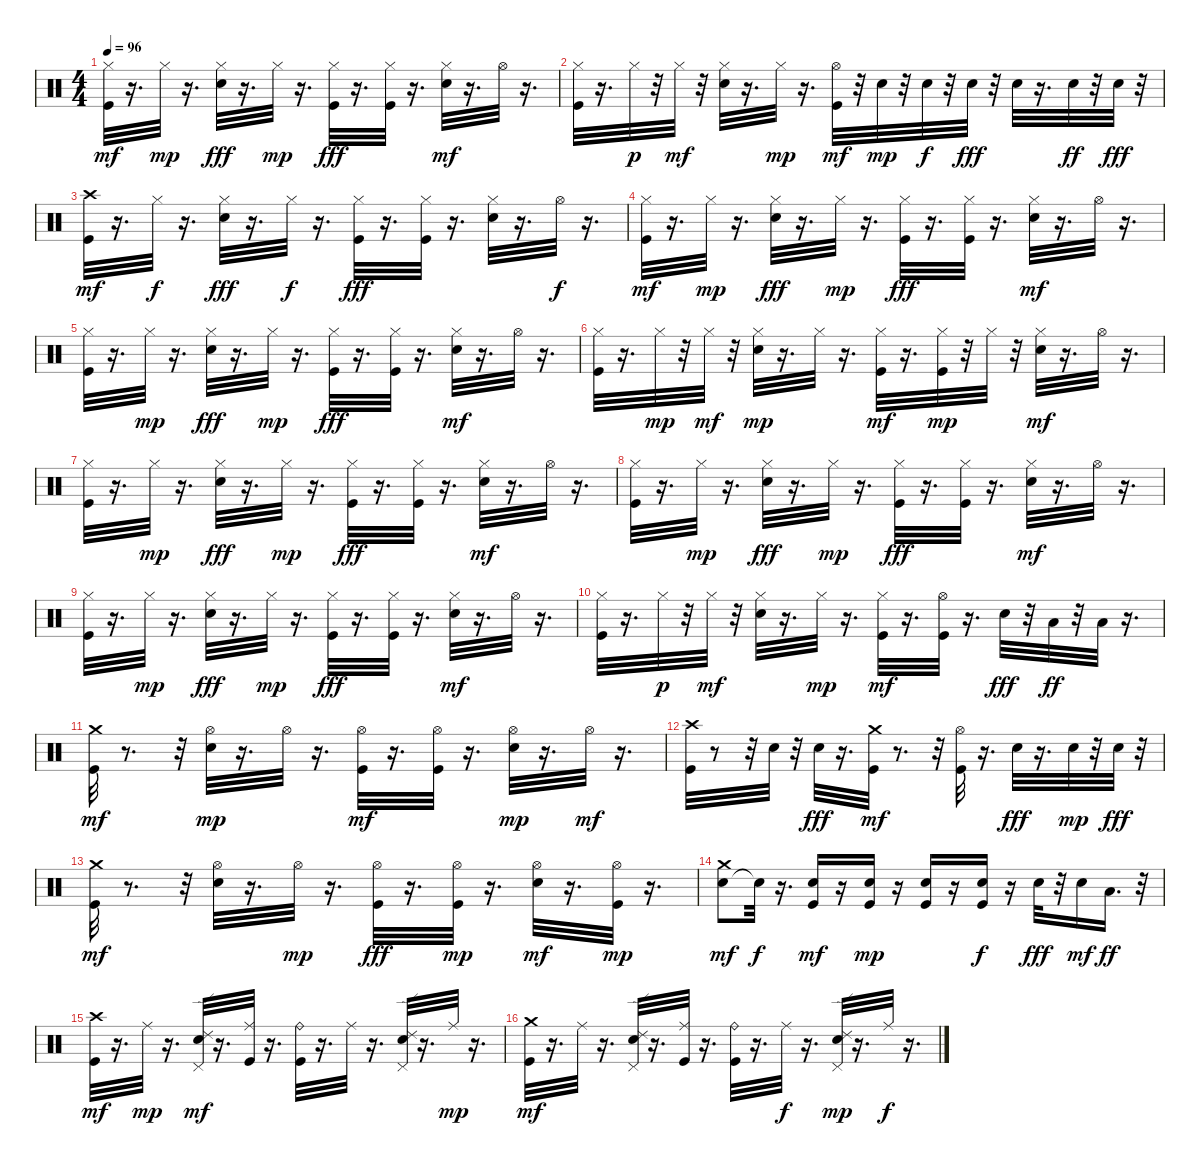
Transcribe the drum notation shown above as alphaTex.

\track "" {instrument percussion}
\staff {score}
\articulation defaults
\ts (4 4)
\tempo 96
\clef neutral
\ks c
("Kick (hit)" "Hi-Hat (closed)").32{dy mf} r.16{d} "Hi-Hat (closed)".32{dy mp} r.16{d} ("Electric Snare (hit)" "Hi-Hat (closed)").32{dy fff} r.16{d} "Hi-Hat (closed)".32{dy mp} r.16{d} ("Kick (hit)" "Hi-Hat (closed)").32{dy fff} r.16{d} ("Kick (hit)" "Hi-Hat (closed)").32 r.16{d} ("Electric Snare (hit)" "Hi-Hat (closed)").32{dy mf} r.16{d} "Hi-Hat (open)".32 r.16{d} |
("Kick (hit)" "Hi-Hat (closed)").32 r.16{d} "Hi-Hat (closed)".32{dy p} r.32 "Hi-Hat (closed)".32{dy mf} r.32 ("Electric Snare (hit)" "Hi-Hat (closed)").32 r.16{d} "Hi-Hat (closed)".32{dy mp} r.16{d} ("Kick (hit)" "Hi-Hat (open)").32{dy mf} r.32 "Electric Snare (hit)".32{dy mp} r.32 "Electric Snare (hit)".32{dy f} r.32 "Electric Snare (hit)".32{dy fff} r.32 "Electric Snare (hit)".32 r.16{d} "Electric Snare (hit)".32{dy ff} r.32 "Electric Snare (hit)".32{dy fff} r.32 |
("Kick (hit)" "Crash high (hit)").32{dy mf} r.16{d} "Hi-Hat (closed)".32{dy f} r.16{d} ("Electric Snare (hit)" "Hi-Hat (closed)").32{dy fff} r.16{d} "Hi-Hat (closed)".32{dy f} r.16{d} ("Kick (hit)" "Hi-Hat (closed)").32{dy fff} r.16{d} ("Kick (hit)" "Hi-Hat (closed)").32 r.16{d} ("Electric Snare (hit)" "Hi-Hat (closed)").32 r.16{d} "Hi-Hat (open)".32{dy f} r.16{d} |
("Kick (hit)" "Hi-Hat (closed)").32{dy mf} r.16{d} "Hi-Hat (closed)".32{dy mp} r.16{d} ("Electric Snare (hit)" "Hi-Hat (closed)").32{dy fff} r.16{d} "Hi-Hat (closed)".32{dy mp} r.16{d} ("Kick (hit)" "Hi-Hat (closed)").32{dy fff} r.16{d} ("Kick (hit)" "Hi-Hat (closed)").32 r.16{d} ("Electric Snare (hit)" "Hi-Hat (closed)").32{dy mf} r.16{d} "Hi-Hat (open)".32 r.16{d} |
("Kick (hit)" "Hi-Hat (closed)").32 r.16{d} "Hi-Hat (closed)".32{dy mp} r.16{d} ("Electric Snare (hit)" "Hi-Hat (closed)").32{dy fff} r.16{d} "Hi-Hat (closed)".32{dy mp} r.16{d} ("Kick (hit)" "Hi-Hat (closed)").32{dy fff} r.16{d} ("Kick (hit)" "Hi-Hat (closed)").32 r.16{d} ("Electric Snare (hit)" "Hi-Hat (closed)").32{dy mf} r.16{d} "Hi-Hat (open)".32 r.16{d} |
("Kick (hit)" "Hi-Hat (closed)").32 r.16{d} "Hi-Hat (closed)".32{dy mp} r.32 "Hi-Hat (closed)".32{dy mf} r.32 ("Electric Snare (hit)" "Hi-Hat (closed)").32{dy mp} r.16{d} "Hi-Hat (closed)".32 r.16{d} ("Kick (hit)" "Hi-Hat (closed)").32{dy mf} r.16{d} ("Kick (hit)" "Hi-Hat (closed)").32{dy mp} r.32 "Hi-Hat (closed)".32 r.32 ("Electric Snare (hit)" "Hi-Hat (closed)").32{dy mf} r.16{d} "Hi-Hat (open)".32 r.16{d} |
("Kick (hit)" "Hi-Hat (closed)").32 r.16{d} "Hi-Hat (closed)".32{dy mp} r.16{d} ("Electric Snare (hit)" "Hi-Hat (closed)").32{dy fff} r.16{d} "Hi-Hat (closed)".32{dy mp} r.16{d} ("Kick (hit)" "Hi-Hat (closed)").32{dy fff} r.16{d} ("Kick (hit)" "Hi-Hat (closed)").32 r.16{d} ("Electric Snare (hit)" "Hi-Hat (closed)").32{dy mf} r.16{d} "Hi-Hat (open)".32 r.16{d} |
("Kick (hit)" "Hi-Hat (closed)").32 r.16{d} "Hi-Hat (closed)".32{dy mp} r.16{d} ("Electric Snare (hit)" "Hi-Hat (closed)").32{dy fff} r.16{d} "Hi-Hat (closed)".32{dy mp} r.16{d} ("Kick (hit)" "Hi-Hat (closed)").32{dy fff} r.16{d} ("Kick (hit)" "Hi-Hat (closed)").32 r.16{d} ("Electric Snare (hit)" "Hi-Hat (closed)").32{dy mf} r.16{d} "Hi-Hat (open)".32 r.16{d} |
("Kick (hit)" "Hi-Hat (closed)").32 r.16{d} "Hi-Hat (closed)".32{dy mp} r.16{d} ("Electric Snare (hit)" "Hi-Hat (closed)").32{dy fff} r.16{d} "Hi-Hat (closed)".32{dy mp} r.16{d} ("Kick (hit)" "Hi-Hat (closed)").32{dy fff} r.16{d} ("Kick (hit)" "Hi-Hat (closed)").32 r.16{d} ("Electric Snare (hit)" "Hi-Hat (closed)").32{dy mf} r.16{d} "Hi-Hat (open)".32 r.16{d} |
("Kick (hit)" "Hi-Hat (closed)").32 r.16{d} "Hi-Hat (closed)".32{dy p} r.32 "Hi-Hat (closed)".32{dy mf} r.32 ("Electric Snare (hit)" "Hi-Hat (closed)").32 r.16{d} "Hi-Hat (closed)".32{dy mp} r.16{d} ("Kick (hit)" "Hi-Hat (closed)").32{dy mf} r.16{d} ("Kick (hit)" "Hi-Hat (open)").32 r.16{d} "Electric Snare (hit)".32{dy fff} r.32 "Low Tom (hit)".32{dy ff} r.32 "Low Floor Tom (hit)".32 r.16{d} |
("Kick (hit)" "Crash medium (hit)").32{dy mf} r.8{d} r.32 ("Electric Snare (hit)" "Hi-Hat (open)").32{dy mp} r.16{d} "Hi-Hat (open)".32 r.16{d} ("Kick (hit)" "Hi-Hat (open)").32{dy mf} r.16{d} ("Kick (hit)" "Hi-Hat (open)").32 r.16{d} ("Electric Snare (hit)" "Hi-Hat (open)").32{dy mp} r.16{d} "Hi-Hat (open)".32{dy mf} r.16{d} |
("Kick (hit)" "Crash high (hit)").32 r.8 r.32 "Electric Snare (hit)".32 r.32 "Electric Snare (hit)".32{dy fff} r.16{d} ("Kick (hit)" "Crash medium (hit)").32{dy mf} r.8{d} r.32 ("Kick (hit)" "Hi-Hat (open)").32 r.16{d} "Electric Snare (hit)".32{dy fff} r.16{d} "Electric Snare (hit)".32{dy mp} r.32 "Electric Snare (hit)".32{dy fff} r.32 |
("Kick (hit)" "Crash medium (hit)").32{dy mf} r.8{d} r.32 ("Electric Snare (hit)" "Hi-Hat (open)").32 r.16{d} "Hi-Hat (open)".32{dy mp} r.16{d} ("Kick (hit)" "Hi-Hat (open)").32{dy fff} r.16{d} ("Kick (hit)" "Hi-Hat (open)").32{dy mp} r.16{d} ("Electric Snare (hit)" "Hi-Hat (open)").32{dy mf} r.16{d} ("Kick (hit)" "Hi-Hat (open)").32{dy mp} r.16{d} |
("Electric Snare (hit)" "Crash medium (hit)").8{dy mf} "Snare (hit)"{t}.32{dy f} r.16{d} ("Electric Snare (hit)" "Kick (hit)").16{dy mf} r.16 ("Electric Snare (hit)" "Kick (hit)").16{dy mp} r.16 ("Kick (hit)" "Electric Snare (hit)").16 r.16 ("Electric Snare (hit)" "Kick (hit)").16{dy f} r.16 "Electric Snare (hit)".32{dy fff} r.32 "Electric Snare (hit)".16{dy mf} "Low Floor Tom (hit)".16{d dy ff} r.32 |
("Kick (hit)" "Crash high (hit)").32{dy mf} r.16{d} "Ride (middle)".32{dy mp} r.16{d} ("Electric Snare (hit)" "Ride (edge) 2" "Pedal Hi-Hat (hit)").32{dy mf} r.16{d} ("Kick (hit)" "Ride (middle)").32 r.16{d} ("Kick (hit)" "Ride (bell)").32 r.16{d} "Ride (middle)".32 r.16{d} ("Electric Snare (hit)" "Ride (edge) 2" "Pedal Hi-Hat (hit)").32 r.16{d} "Ride (middle)".32{dy mp} r.16{d} |
("Kick (hit)" "Crash medium (hit)").32{dy mf} r.16{d} "Ride (middle)".32 r.16{d} ("Electric Snare (hit)" "Ride (edge) 2" "Pedal Hi-Hat (hit)").32 r.16{d} ("Kick (hit)" "Ride (middle)").32 r.16{d} ("Kick (hit)" "Ride (bell)").32 r.16{d} "Ride (middle)".32{dy f} r.16{d} ("Electric Snare (hit)" "Ride (edge) 2" "Pedal Hi-Hat (hit)").32{dy mp} r.16{d} "Ride (middle)".32{dy f} r.16{d}
